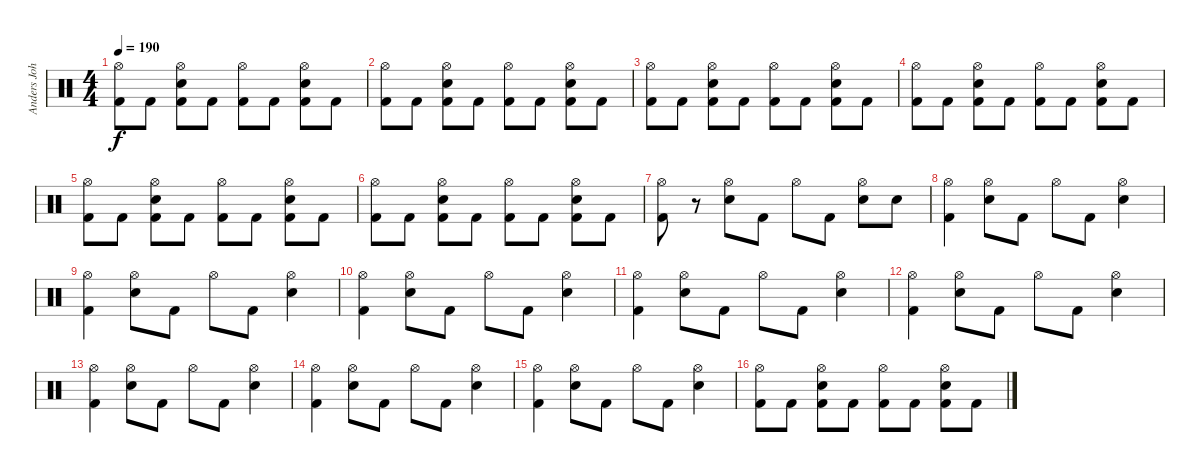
\track ("Anders Johansson Drums" "Anders Joh") {instrument percussion}
\staff {score}
\articulation defaults
\ts (4 4)
\tempo 190
\clef neutral
\ks c
("Hi-Hat (open)" "Kick (hit) 2").8{dy f} "Kick (hit) 2".8 ("Hi-Hat (open)" "Snare (hit) 2" "Kick (hit) 2").8 "Kick (hit) 2".8 ("Hi-Hat (open)" "Kick (hit) 2").8 "Kick (hit) 2".8 ("Hi-Hat (open)" "Snare (hit) 2" "Kick (hit) 2").8 "Kick (hit) 2".8 |
("Hi-Hat (open)" "Kick (hit) 2").8 "Kick (hit) 2".8 ("Hi-Hat (open)" "Snare (hit) 2" "Kick (hit) 2").8 "Kick (hit) 2".8 ("Hi-Hat (open)" "Kick (hit) 2").8 "Kick (hit) 2".8 ("Hi-Hat (open)" "Snare (hit) 2" "Kick (hit) 2").8 "Kick (hit) 2".8 |
("Hi-Hat (open)" "Kick (hit) 2").8 "Kick (hit) 2".8 ("Hi-Hat (open)" "Snare (hit) 2" "Kick (hit) 2").8 "Kick (hit) 2".8 ("Hi-Hat (open)" "Kick (hit) 2").8 "Kick (hit) 2".8 ("Hi-Hat (open)" "Snare (hit) 2" "Kick (hit) 2").8 "Kick (hit) 2".8 |
("Hi-Hat (open)" "Kick (hit) 2").8 "Kick (hit) 2".8 ("Hi-Hat (open)" "Snare (hit) 2" "Kick (hit) 2").8 "Kick (hit) 2".8 ("Hi-Hat (open)" "Kick (hit) 2").8 "Kick (hit) 2".8 ("Hi-Hat (open)" "Snare (hit) 2" "Kick (hit) 2").8 "Kick (hit) 2".8 |
("Hi-Hat (open)" "Kick (hit) 2").8 "Kick (hit) 2".8 ("Hi-Hat (open)" "Snare (hit) 2" "Kick (hit) 2").8 "Kick (hit) 2".8 ("Hi-Hat (open)" "Kick (hit) 2").8 "Kick (hit) 2".8 ("Hi-Hat (open)" "Snare (hit) 2" "Kick (hit) 2").8 "Kick (hit) 2".8 |
("Hi-Hat (open)" "Kick (hit) 2").8 "Kick (hit) 2".8 ("Hi-Hat (open)" "Snare (hit) 2" "Kick (hit) 2").8 "Kick (hit) 2".8 ("Hi-Hat (open)" "Kick (hit) 2").8 "Kick (hit) 2".8 ("Hi-Hat (open)" "Snare (hit) 2" "Kick (hit) 2").8 "Kick (hit) 2".8 |
("Hi-Hat (open)" "Kick (hit) 2").8 r.8 ("Hi-Hat (open)" "Snare (hit) 2").8 "Kick (hit) 2".8 "Hi-Hat (open)".8 "Kick (hit) 2".8 ("Hi-Hat (open)" "Snare (hit) 2").8 "Snare (hit) 2".8 |
("Hi-Hat (open)" "Kick (hit) 2").4 ("Hi-Hat (open)" "Snare (hit) 2").8 "Kick (hit) 2".8 "Hi-Hat (open)".8 "Kick (hit) 2".8 ("Hi-Hat (open)" "Snare (hit) 2").4 |
("Hi-Hat (open)" "Kick (hit) 2").4 ("Hi-Hat (open)" "Snare (hit) 2").8 "Kick (hit) 2".8 "Hi-Hat (open)".8 "Kick (hit) 2".8 ("Hi-Hat (open)" "Snare (hit) 2").4 |
("Hi-Hat (open)" "Kick (hit) 2").4 ("Hi-Hat (open)" "Snare (hit) 2").8 "Kick (hit) 2".8 "Hi-Hat (open)".8 "Kick (hit) 2".8 ("Hi-Hat (open)" "Snare (hit) 2").4 |
("Hi-Hat (open)" "Kick (hit) 2").4 ("Hi-Hat (open)" "Snare (hit) 2").8 "Kick (hit) 2".8 "Hi-Hat (open)".8 "Kick (hit) 2".8 ("Hi-Hat (open)" "Snare (hit) 2").4 |
("Hi-Hat (open)" "Kick (hit) 2").4 ("Hi-Hat (open)" "Snare (hit) 2").8 "Kick (hit) 2".8 "Hi-Hat (open)".8 "Kick (hit) 2".8 ("Hi-Hat (open)" "Snare (hit) 2").4 |
("Hi-Hat (open)" "Kick (hit) 2").4 ("Hi-Hat (open)" "Snare (hit) 2").8 "Kick (hit) 2".8 "Hi-Hat (open)".8 "Kick (hit) 2".8 ("Hi-Hat (open)" "Snare (hit) 2").4 |
("Hi-Hat (open)" "Kick (hit) 2").4 ("Hi-Hat (open)" "Snare (hit) 2").8 "Kick (hit) 2".8 "Hi-Hat (open)".8 "Kick (hit) 2".8 ("Hi-Hat (open)" "Snare (hit) 2").4 |
("Hi-Hat (open)" "Kick (hit) 2").4 ("Hi-Hat (open)" "Snare (hit) 2").8 "Kick (hit) 2".8 "Hi-Hat (open)".8 "Kick (hit) 2".8 ("Hi-Hat (open)" "Snare (hit) 2").4 |
("Hi-Hat (open)" "Kick (hit) 2").8 "Kick (hit) 2".8 ("Hi-Hat (open)" "Snare (hit) 2" "Kick (hit) 2").8 "Kick (hit) 2".8 ("Hi-Hat (open)" "Kick (hit) 2").8 "Kick (hit) 2".8 ("Hi-Hat (open)" "Snare (hit) 2" "Kick (hit) 2").8 "Kick (hit) 2".8
